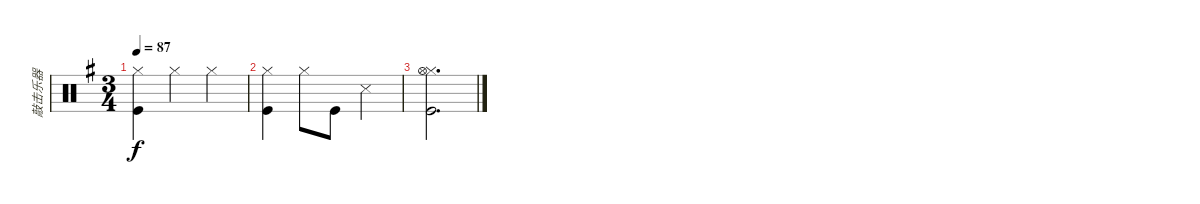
\track ("敲击乐器" "敲击乐器") {instrument percussion}
\staff {score}
\articulation defaults
\ts (3 4)
\tempo 87
\clef neutral
\ks g
("Hi-Hat (closed)" "Kick (hit)").4{dy f} "Hi-Hat (closed)".4 "Hi-Hat (closed)".4 |
("Hi-Hat (closed)" "Kick (hit)").4 "Hi-Hat (closed)".8 "Kick (hit)".8 "Snare (side stick) 3".4 |
("Hi-Hat (closed)" "Hi-Hat (open)" "Kick (hit)").2{d}
